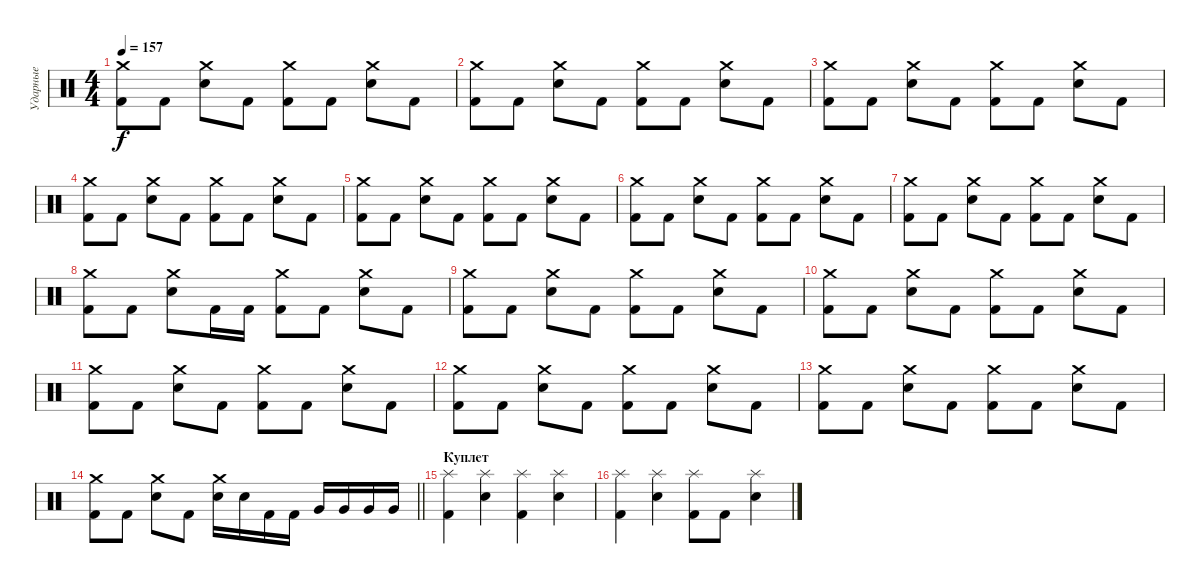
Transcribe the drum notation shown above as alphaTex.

\track ("Ударные" "Ударные") {instrument percussion}
\staff {score}
\articulation defaults
\ts (4 4)
\tempo 157
\clef neutral
\ks c
("Kick (hit) 2" "Crash medium (hit)").8{dy f} "Kick (hit) 2".8 ("Snare (hit) 2" "Crash medium (hit)").8 "Kick (hit) 2".8 ("Kick (hit) 2" "Crash medium (hit)").8 "Kick (hit) 2".8 ("Snare (hit) 2" "Crash medium (hit)").8 "Kick (hit) 2".8 |
("Kick (hit) 2" "Crash medium (hit)").8 "Kick (hit) 2".8 ("Snare (hit) 2" "Crash medium (hit)").8 "Kick (hit) 2".8 ("Kick (hit) 2" "Crash medium (hit)").8 "Kick (hit) 2".8 ("Snare (hit) 2" "Crash medium (hit)").8 "Kick (hit) 2".8 |
("Kick (hit) 2" "Crash medium (hit)").8 "Kick (hit) 2".8 ("Snare (hit) 2" "Crash medium (hit)").8 "Kick (hit) 2".8 ("Kick (hit) 2" "Crash medium (hit)").8 "Kick (hit) 2".8 ("Snare (hit) 2" "Crash medium (hit)").8 "Kick (hit) 2".8 |
("Kick (hit) 2" "Crash medium (hit)").8 "Kick (hit) 2".8 ("Snare (hit) 2" "Crash medium (hit)").8 "Kick (hit) 2".8 ("Kick (hit) 2" "Crash medium (hit)").8 "Kick (hit) 2".8 ("Snare (hit) 2" "Crash medium (hit)").8 "Kick (hit) 2".8 |
("Kick (hit) 2" "Crash medium (hit)").8 "Kick (hit) 2".8 ("Snare (hit) 2" "Crash medium (hit)").8 "Kick (hit) 2".8 ("Kick (hit) 2" "Crash medium (hit)").8 "Kick (hit) 2".8 ("Snare (hit) 2" "Crash medium (hit)").8 "Kick (hit) 2".8 |
("Kick (hit) 2" "Crash medium (hit)").8 "Kick (hit) 2".8 ("Snare (hit) 2" "Crash medium (hit)").8 "Kick (hit) 2".8 ("Kick (hit) 2" "Crash medium (hit)").8 "Kick (hit) 2".8 ("Snare (hit) 2" "Crash medium (hit)").8 "Kick (hit) 2".8 |
("Kick (hit) 2" "Crash medium (hit)").8 "Kick (hit) 2".8 ("Snare (hit) 2" "Crash medium (hit)").8 "Kick (hit) 2".8 ("Kick (hit) 2" "Crash medium (hit)").8 "Kick (hit) 2".8 ("Snare (hit) 2" "Crash medium (hit)").8 "Kick (hit) 2".8 |
("Kick (hit) 2" "Crash medium (hit)").8 "Kick (hit) 2".8 ("Snare (hit) 2" "Crash medium (hit)").8 "Kick (hit) 2".16 "Kick (hit) 2".16 ("Kick (hit) 2" "Crash medium (hit)").8 "Kick (hit) 2".8 ("Snare (hit) 2" "Crash medium (hit)").8 "Kick (hit) 2".8 |
("Kick (hit) 2" "Crash medium (hit)").8 "Kick (hit) 2".8 ("Snare (hit) 2" "Crash medium (hit)").8 "Kick (hit) 2".8 ("Kick (hit) 2" "Crash medium (hit)").8 "Kick (hit) 2".8 ("Snare (hit) 2" "Crash medium (hit)").8 "Kick (hit) 2".8 |
("Kick (hit) 2" "Crash medium (hit)").8 "Kick (hit) 2".8 ("Snare (hit) 2" "Crash medium (hit)").8 "Kick (hit) 2".8 ("Kick (hit) 2" "Crash medium (hit)").8 "Kick (hit) 2".8 ("Snare (hit) 2" "Crash medium (hit)").8 "Kick (hit) 2".8 |
("Kick (hit) 2" "Crash medium (hit)").8 "Kick (hit) 2".8 ("Snare (hit) 2" "Crash medium (hit)").8 "Kick (hit) 2".8 ("Kick (hit) 2" "Crash medium (hit)").8 "Kick (hit) 2".8 ("Snare (hit) 2" "Crash medium (hit)").8 "Kick (hit) 2".8 |
("Kick (hit) 2" "Crash medium (hit)").8 "Kick (hit) 2".8 ("Snare (hit) 2" "Crash medium (hit)").8 "Kick (hit) 2".8 ("Kick (hit) 2" "Crash medium (hit)").8 "Kick (hit) 2".8 ("Snare (hit) 2" "Crash medium (hit)").8 "Kick (hit) 2".8 |
("Kick (hit) 2" "Crash medium (hit)").8 "Kick (hit) 2".8 ("Snare (hit) 2" "Crash medium (hit)").8 "Kick (hit) 2".8 ("Kick (hit) 2" "Crash medium (hit)").8 "Kick (hit) 2".8 ("Snare (hit) 2" "Crash medium (hit)").8 "Kick (hit) 2".8 |
\barLineRight lightlight
("Kick (hit) 2" "Crash medium (hit)").8 "Kick (hit) 2".8 ("Snare (hit) 2" "Crash medium (hit)").8 "Kick (hit) 2".8 ("Electric Snare (hit)" "Crash medium (hit)").16 "Electric Snare (hit)".16 "Kick (hit) 2".16 "Kick (hit) 2".16 "Very Low Tom (hit)".16 "Very Low Tom (hit)".16 "Very Low Tom (hit)".16 "Very Low Tom (hit)".16 |
\section ("" "Куплет")
("Kick (hit) 2" "Splash (hit)").4 ("Electric Snare (hit)" "Splash (hit)").4 ("Kick (hit) 2" "Splash (hit)").4 ("Electric Snare (hit)" "Splash (hit)").4 |
("Kick (hit) 2" "Splash (hit)").4 ("Electric Snare (hit)" "Splash (hit)").4 ("Kick (hit) 2" "Splash (hit)").8 "Kick (hit) 2".8 ("Electric Snare (hit)" "Splash (hit)").4
